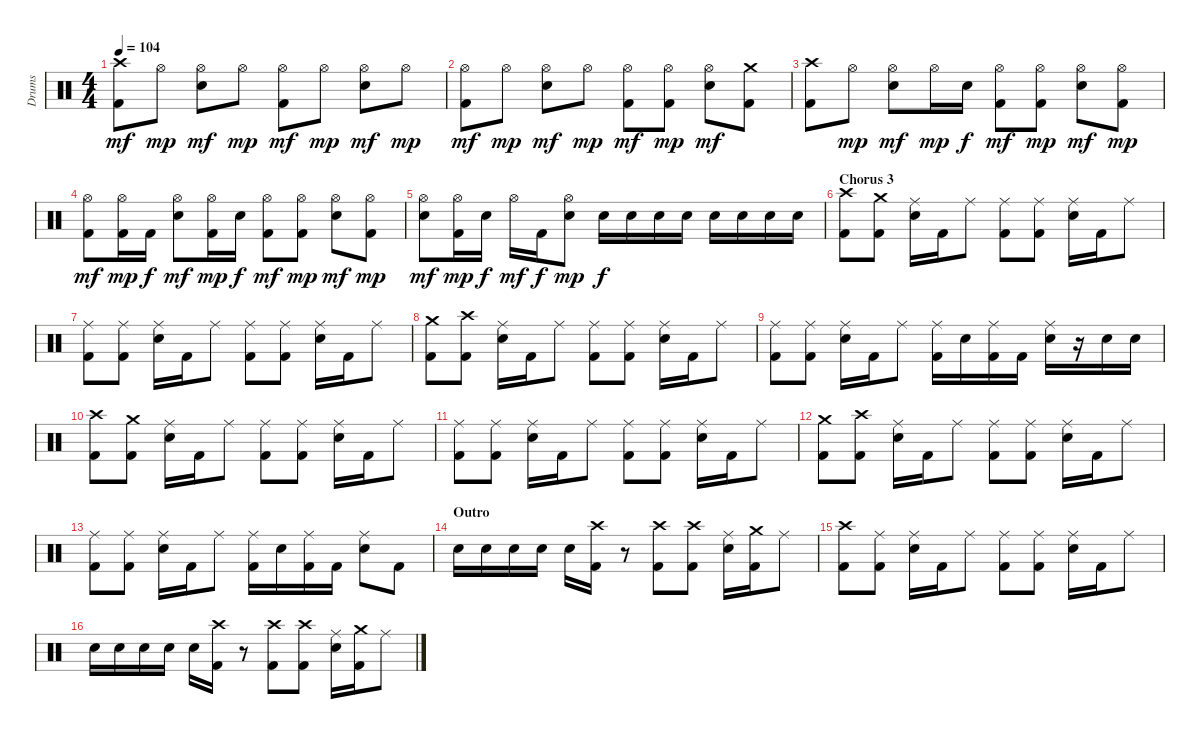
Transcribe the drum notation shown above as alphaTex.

\track ("Drums" "Drums") {instrument percussion}
\staff {score}
\articulation defaults
\ts (4 4)
\tempo 104
\clef neutral
\ks c
("Crash high (hit)" "Kick (hit) 2").8{dy mf} "Hi-Hat (open)".8{dy mp} ("Hi-Hat (open)" "Electric Snare (hit)").8{dy mf} "Hi-Hat (open)".8{dy mp} ("Hi-Hat (open)" "Kick (hit) 2").8{dy mf} "Hi-Hat (open)".8{dy mp} ("Hi-Hat (open)" "Electric Snare (hit)").8{dy mf} "Hi-Hat (open)".8{dy mp} |
("Hi-Hat (open)" "Kick (hit) 2").8{dy mf} "Hi-Hat (open)".8{dy mp} ("Hi-Hat (open)" "Electric Snare (hit)").8{dy mf} "Hi-Hat (open)".8{dy mp} ("Hi-Hat (open)" "Kick (hit) 2").8{dy mf} ("Hi-Hat (open)" "Kick (hit) 2").8{dy mp} ("Hi-Hat (open)" "Electric Snare (hit)").8{dy mf} ("Crash medium (hit)" "Kick (hit) 2").8 |
("Crash high (hit)" "Kick (hit) 2").8 "Hi-Hat (open)".8{dy mp} ("Hi-Hat (open)" "Electric Snare (hit)").8{dy mf} "Hi-Hat (open)".16{dy mp} "Electric Snare (hit)".16{dy f} ("Hi-Hat (open)" "Kick (hit) 2").8{dy mf} ("Hi-Hat (open)" "Kick (hit) 2").8{dy mp} ("Hi-Hat (open)" "Electric Snare (hit)").8{dy mf} ("Hi-Hat (open)" "Kick (hit) 2").8{dy mp} |
("Hi-Hat (open)" "Kick (hit) 2").8{dy mf} ("Hi-Hat (open)" "Kick (hit) 2").16{dy mp} "Kick (hit) 2".16{dy f} ("Hi-Hat (open)" "Electric Snare (hit)").8{dy mf} ("Hi-Hat (open)" "Kick (hit) 2").16{dy mp} "Electric Snare (hit)".16{dy f} ("Hi-Hat (open)" "Kick (hit) 2").8{dy mf} ("Hi-Hat (open)" "Kick (hit) 2").8{dy mp} ("Hi-Hat (open)" "Electric Snare (hit)").8{dy mf} ("Hi-Hat (open)" "Kick (hit) 2").8{dy mp} |
("Hi-Hat (open)" "Electric Snare (hit)").8{dy mf} ("Hi-Hat (open)" "Kick (hit) 2").16{dy mp} "Electric Snare (hit)".16{dy f} "Hi-Hat (open)".16{dy mf} "Kick (hit) 2".16{dy f} ("Hi-Hat (open)" "Electric Snare (hit)").8{dy mp} "Electric Snare (hit)".16{dy f} "Electric Snare (hit)".16 "Electric Snare (hit)".16 "Electric Snare (hit)".16 "Electric Snare (hit)".16 "Electric Snare (hit)".16 "Electric Snare (hit)".16 "Electric Snare (hit)".16 |
\section ("" "Chorus 3")
("Crash high (hit)" "Kick (hit) 2").8 ("Crash medium (hit)" "Kick (hit) 2").8 ("Ride (middle)" "Electric Snare (hit)").16 "Kick (hit) 2".16 "Ride (middle)".8 ("Ride (middle)" "Kick (hit) 2").8 ("Ride (middle)" "Kick (hit) 2").8 ("Ride (middle)" "Electric Snare (hit)").16 "Kick (hit) 2".16 "Ride (middle)".8 |
("Ride (middle)" "Kick (hit) 2").8 ("Ride (middle)" "Kick (hit) 2").8 ("Ride (middle)" "Electric Snare (hit)").16 "Kick (hit) 2".16 "Ride (middle)".8 ("Ride (middle)" "Kick (hit) 2").8 ("Ride (middle)" "Kick (hit) 2").8 ("Ride (middle)" "Electric Snare (hit)").16 "Kick (hit) 2".16 "Ride (middle)".8 |
("Crash medium (hit)" "Kick (hit) 2").8 ("Crash high (hit)" "Kick (hit) 2").8 ("Ride (middle)" "Electric Snare (hit)").16 "Kick (hit) 2".16 "Ride (middle)".8 ("Ride (middle)" "Kick (hit) 2").8 ("Ride (middle)" "Kick (hit) 2").8 ("Ride (middle)" "Electric Snare (hit)").16 "Kick (hit) 2".16 "Ride (middle)".8 |
("Ride (middle)" "Kick (hit) 2").8 ("Ride (middle)" "Kick (hit) 2").8 ("Ride (middle)" "Electric Snare (hit)").16 "Kick (hit) 2".16 "Ride (middle)".8 ("Ride (middle)" "Kick (hit) 2").16 "Electric Snare (hit)".16 ("Ride (middle)" "Kick (hit) 2").16 "Kick (hit) 2".16 ("Ride (middle)" "Electric Snare (hit)").16 r.16 "Electric Snare (hit)".16 "Electric Snare (hit)".16 |
("Crash high (hit)" "Kick (hit) 2").8 ("Crash medium (hit)" "Kick (hit) 2").8 ("Ride (middle)" "Electric Snare (hit)").16 "Kick (hit) 2".16 "Ride (middle)".8 ("Ride (middle)" "Kick (hit) 2").8 ("Ride (middle)" "Kick (hit) 2").8 ("Ride (middle)" "Electric Snare (hit)").16 "Kick (hit) 2".16 "Ride (middle)".8 |
("Ride (middle)" "Kick (hit) 2").8 ("Ride (middle)" "Kick (hit) 2").8 ("Ride (middle)" "Electric Snare (hit)").16 "Kick (hit) 2".16 "Ride (middle)".8 ("Ride (middle)" "Kick (hit) 2").8 ("Ride (middle)" "Kick (hit) 2").8 ("Ride (middle)" "Electric Snare (hit)").16 "Kick (hit) 2".16 "Ride (middle)".8 |
("Crash medium (hit)" "Kick (hit) 2").8 ("Crash high (hit)" "Kick (hit) 2").8 ("Ride (middle)" "Electric Snare (hit)").16 "Kick (hit) 2".16 "Ride (middle)".8 ("Ride (middle)" "Kick (hit) 2").8 ("Ride (middle)" "Kick (hit) 2").8 ("Ride (middle)" "Electric Snare (hit)").16 "Kick (hit) 2".16 "Ride (middle)".8 |
("Ride (middle)" "Kick (hit) 2").8 ("Ride (middle)" "Kick (hit) 2").8 ("Ride (middle)" "Electric Snare (hit)").16 "Kick (hit) 2".16 "Ride (middle)".8 ("Ride (middle)" "Kick (hit) 2").16 "Electric Snare (hit)".16 ("Ride (middle)" "Kick (hit) 2").16 "Kick (hit) 2".16 ("Ride (middle)" "Electric Snare (hit)").8 "Kick (hit) 2".8 |
\section ("" "Outro")
"Electric Snare (hit)".16 "Electric Snare (hit)".16 "Electric Snare (hit)".16 "Electric Snare (hit)".16 "Electric Snare (hit)".16 ("Crash high (hit)" "Kick (hit) 2").16 r.8 ("Crash high (hit)" "Kick (hit) 2").8 ("Crash high (hit)" "Kick (hit) 2").8 ("Ride (middle)" "Electric Snare (hit)").16 ("Crash medium (hit)" "Kick (hit) 2").16 "Ride (middle)".8 |
("Crash high (hit)" "Kick (hit) 2").8 ("Ride (middle)" "Kick (hit) 2").8 ("Ride (middle)" "Electric Snare (hit)").16 "Kick (hit) 2".16 "Ride (middle)".8 ("Ride (middle)" "Kick (hit) 2").8 ("Ride (middle)" "Kick (hit) 2").8 ("Ride (middle)" "Electric Snare (hit)").16 "Kick (hit) 2".16 "Ride (middle)".8 |
"Electric Snare (hit)".16 "Electric Snare (hit)".16 "Electric Snare (hit)".16 "Electric Snare (hit)".16 "Electric Snare (hit)".16 ("Crash high (hit)" "Kick (hit) 2").16 r.8 ("Crash high (hit)" "Kick (hit) 2").8 ("Crash high (hit)" "Kick (hit) 2").8 ("Ride (middle)" "Electric Snare (hit)").16 ("Crash medium (hit)" "Kick (hit) 2").16 "Ride (middle)".8
